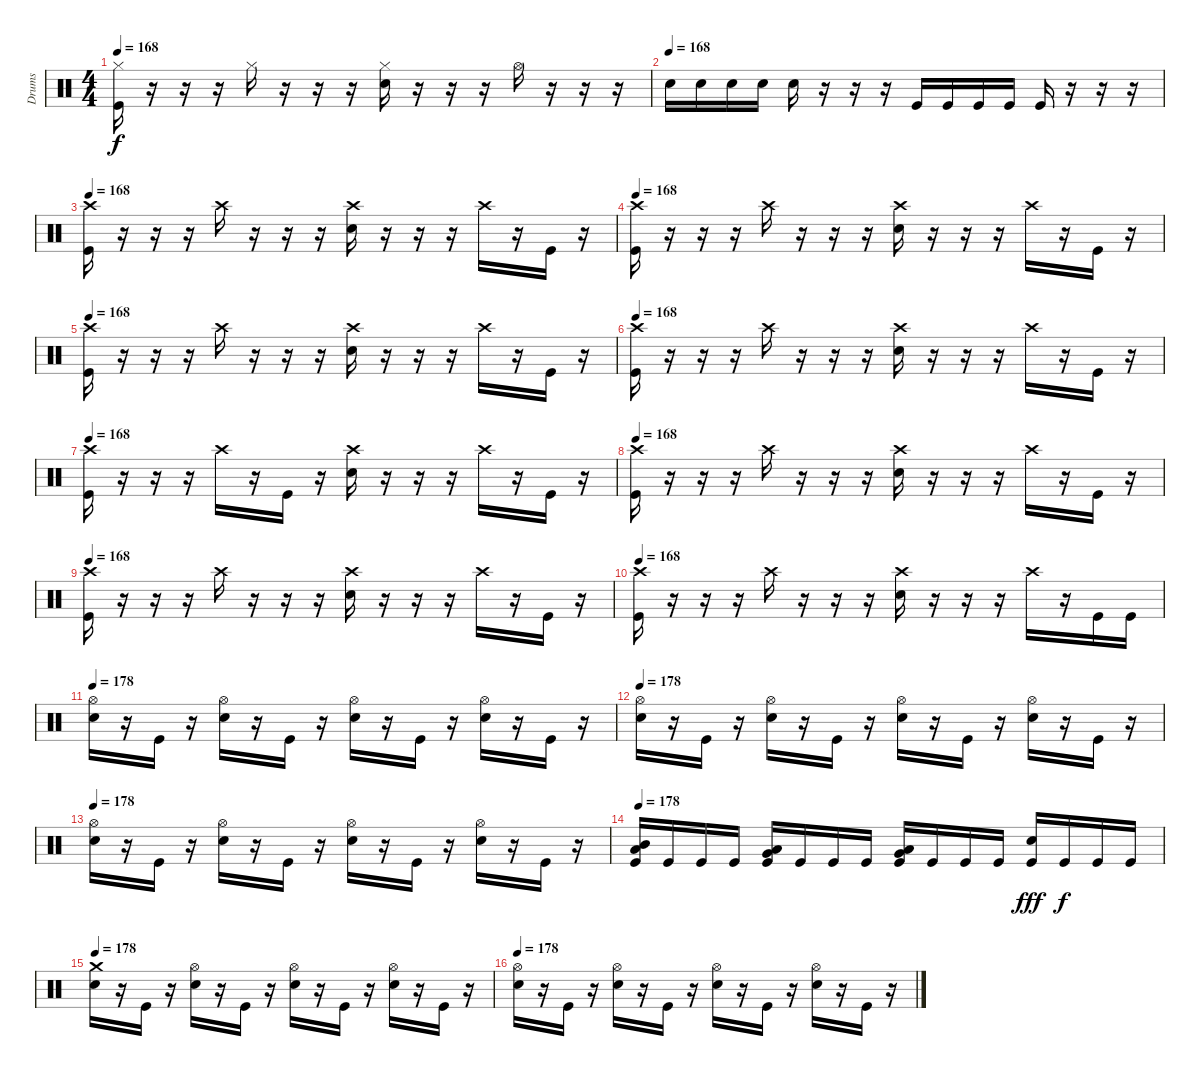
\track ("Drums" "Drums") {instrument percussion}
\staff {score}
\articulation defaults
\ts (4 4)
\tempo 168
\clef neutral
\ks c
("Kick (hit)" "Hi-Hat (closed)").16{dy f} r.16 r.16 r.16 "Hi-Hat (closed)".16 r.16 r.16 r.16 ("Electric Snare (hit)" "Hi-Hat (closed)").16 r.16 r.16 r.16 "Hi-Hat (open)".16 r.16 r.16 r.16 |
\tempo (168)
"Electric Snare (hit)".16 "Electric Snare (hit)".16 "Electric Snare (hit)".16 "Electric Snare (hit)".16 "Electric Snare (hit)".16 r.16 r.16 r.16 "Kick (hit)".16 "Kick (hit)".16 "Kick (hit)".16 "Kick (hit)".16 "Kick (hit)".16 r.16 r.16 r.16 |
\tempo 168
("Kick (hit)" "Crash high (hit)").16 r.16 r.16 r.16 "Crash high (hit)".16 r.16 r.16 r.16 ("Electric Snare (hit)" "Crash high (hit)").16 r.16 r.16 r.16 "Crash high (hit)".16 r.16 "Kick (hit)".16 r.16 |
\tempo 168
("Kick (hit)" "Crash high (hit)").16 r.16 r.16 r.16 "Crash high (hit)".16 r.16 r.16 r.16 ("Electric Snare (hit)" "Crash high (hit)").16 r.16 r.16 r.16 "Crash high (hit)".16 r.16 "Kick (hit)".16 r.16 |
\tempo 168
("Kick (hit)" "Crash high (hit)").16 r.16 r.16 r.16 "Crash high (hit)".16 r.16 r.16 r.16 ("Electric Snare (hit)" "Crash high (hit)").16 r.16 r.16 r.16 "Crash high (hit)".16 r.16 "Kick (hit)".16 r.16 |
\tempo 168
("Kick (hit)" "Crash high (hit)").16 r.16 r.16 r.16 "Crash high (hit)".16 r.16 r.16 r.16 ("Electric Snare (hit)" "Crash high (hit)").16 r.16 r.16 r.16 "Crash high (hit)".16 r.16 "Kick (hit)".16 r.16 |
\tempo 168
("Kick (hit)" "Crash high (hit)").16 r.16 r.16 r.16 "Crash high (hit)".16 r.16 "Kick (hit)".16 r.16 ("Electric Snare (hit)" "Crash high (hit)").16 r.16 r.16 r.16 "Crash high (hit)".16 r.16 "Kick (hit)".16 r.16 |
\tempo 168
("Kick (hit)" "Crash high (hit)").16 r.16 r.16 r.16 "Crash high (hit)".16 r.16 r.16 r.16 ("Electric Snare (hit)" "Crash high (hit)").16 r.16 r.16 r.16 "Crash high (hit)".16 r.16 "Kick (hit)".16 r.16 |
\tempo 168
("Kick (hit)" "Crash high (hit)").16 r.16 r.16 r.16 "Crash high (hit)".16 r.16 r.16 r.16 ("Electric Snare (hit)" "Crash high (hit)").16 r.16 r.16 r.16 "Crash high (hit)".16 r.16 "Kick (hit)".16 r.16 |
\tempo 168
("Kick (hit)" "Crash high (hit)").16 r.16 r.16 r.16 "Crash high (hit)".16 r.16 r.16 r.16 ("Electric Snare (hit)" "Crash high (hit)").16 r.16 r.16 r.16 "Crash high (hit)".16 r.16 "Kick (hit)".16 "Kick (hit)".16 |
\tempo 178
("Electric Snare (hit)" "Hi-Hat (open)").16 r.16 "Kick (hit)".16 r.16 ("Electric Snare (hit)" "Hi-Hat (open)").16 r.16 "Kick (hit)".16 r.16 ("Electric Snare (hit)" "Hi-Hat (open)").16 r.16 "Kick (hit)".16 r.16 ("Electric Snare (hit)" "Hi-Hat (open)").16 r.16 "Kick (hit)".16 r.16 |
\tempo 178
("Electric Snare (hit)" "Hi-Hat (open)").16 r.16 "Kick (hit)".16 r.16 ("Electric Snare (hit)" "Hi-Hat (open)").16 r.16 "Kick (hit)".16 r.16 ("Electric Snare (hit)" "Hi-Hat (open)").16 r.16 "Kick (hit)".16 r.16 ("Electric Snare (hit)" "Hi-Hat (open)").16 r.16 "Kick (hit)".16 r.16 |
\tempo 178
("Electric Snare (hit)" "Hi-Hat (open)").16 r.16 "Kick (hit)".16 r.16 ("Electric Snare (hit)" "Hi-Hat (open)").16 r.16 "Kick (hit)".16 r.16 ("Electric Snare (hit)" "Hi-Hat (open)").16 r.16 "Kick (hit)".16 r.16 ("Electric Snare (hit)" "Hi-Hat (open)").16 r.16 "Kick (hit)".16 r.16 |
\tempo 178
("Kick (hit)" "Low Tom (hit)" "Mid Tom (hit)").16 "Kick (hit)".16 "Kick (hit)".16 "Kick (hit)".16 ("Kick (hit)" "Low Tom (hit)" "Very Low Tom (hit)").16 "Kick (hit)".16 "Kick (hit)".16 "Kick (hit)".16 ("Kick (hit)" "Very Low Tom (hit)" "Low Floor Tom (hit)").16 "Kick (hit)".16 "Kick (hit)".16 "Kick (hit)".16 ("Kick (hit)" "Electric Snare (hit)").16{dy fff} "Kick (hit)".16{dy f} "Kick (hit)".16 "Kick (hit)".16 |
\tempo 178
("Electric Snare (hit)" "Crash medium (hit)").16 r.16 "Kick (hit)".16 r.16 ("Electric Snare (hit)" "Hi-Hat (open)").16 r.16 "Kick (hit)".16 r.16 ("Electric Snare (hit)" "Hi-Hat (open)").16 r.16 "Kick (hit)".16 r.16 ("Electric Snare (hit)" "Hi-Hat (open)").16 r.16 "Kick (hit)".16 r.16 |
\tempo 178
("Electric Snare (hit)" "Hi-Hat (open)").16 r.16 "Kick (hit)".16 r.16 ("Electric Snare (hit)" "Hi-Hat (open)").16 r.16 "Kick (hit)".16 r.16 ("Electric Snare (hit)" "Hi-Hat (open)").16 r.16 "Kick (hit)".16 r.16 ("Electric Snare (hit)" "Hi-Hat (open)").16 r.16 "Kick (hit)".16 r.16
